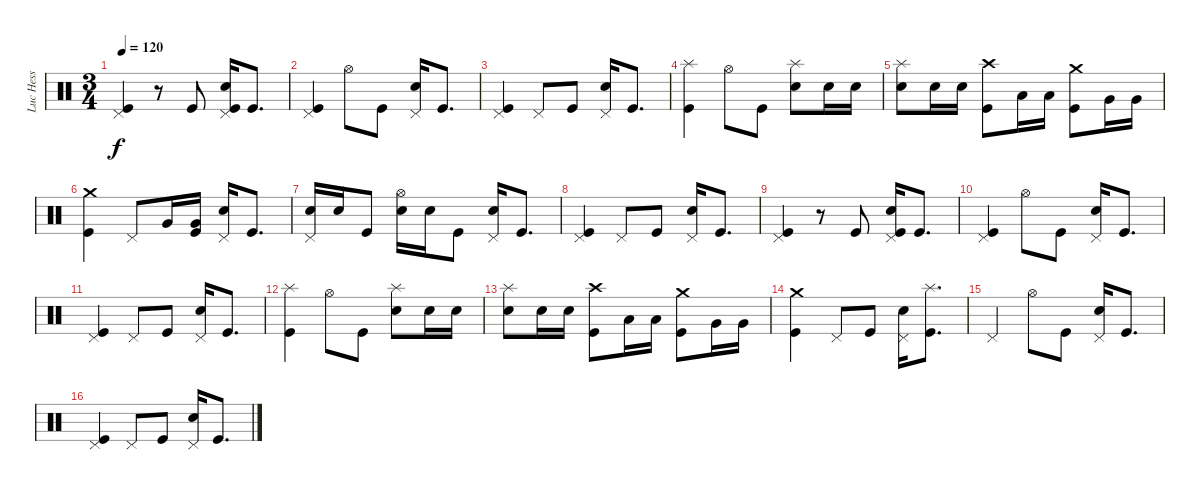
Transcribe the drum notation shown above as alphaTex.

\track ("Luc Hess" "Luc Hess") {instrument percussion}
\staff {score}
\articulation defaults
\ts (3 4)
\tempo 120
\clef neutral
\ks c
("Pedal Hi-Hat (hit)" "Kick (hit)").4{dy f} r.8 "Kick (hit)".8 ("Snare (hit) 2" "Pedal Hi-Hat (hit)" "Kick (hit)").16 "Kick (hit)".8{d} |
("Pedal Hi-Hat (hit)" "Kick (hit)").4 "Hi-Hat (open)".8 "Kick (hit)".8 ("Snare (hit) 2" "Pedal Hi-Hat (hit)").16 "Kick (hit)".8{d} |
("Pedal Hi-Hat (hit)" "Kick (hit)").4 "Pedal Hi-Hat (hit)".8 "Kick (hit)".8 ("Snare (hit) 2" "Pedal Hi-Hat (hit)").16 "Kick (hit)".8{d} |
("Splash (hit)" "Kick (hit)").4 "Hi-Hat (open)".8 "Kick (hit)".8 ("Snare (hit) 2" "Splash (hit)").8 "Snare (hit) 2".16 "Snare (hit) 2".16 |
("Snare (hit) 2" "Splash (hit)").8 "Snare (hit) 2".16 "Snare (hit) 2".16 ("Crash high (hit)" "Kick (hit)").8 "Low Tom (hit)".16 "Low Tom (hit)".16 ("Crash medium (hit)" "Kick (hit)").8 "Very Low Tom (hit)".16 "Very Low Tom (hit)".16 |
("Crash medium (hit)" "Kick (hit)").4 "Pedal Hi-Hat (hit)".8 "Very Low Tom (hit)".16 ("Very Low Tom (hit)" "Kick (hit)").16 ("Snare (hit) 2" "Pedal Hi-Hat (hit)").16 "Kick (hit)".8{d} |
("Snare (hit) 2" "Pedal Hi-Hat (hit)").16 "Snare (hit) 2".16 "Kick (hit)".8 ("Snare (hit) 2" "Hi-Hat (open)").16 "Snare (hit) 2".16 "Kick (hit)".8 ("Snare (hit) 2" "Pedal Hi-Hat (hit)").16 "Kick (hit)".8{d} |
("Pedal Hi-Hat (hit)" "Kick (hit)").4 "Pedal Hi-Hat (hit)".8 "Kick (hit)".8 ("Snare (hit) 2" "Pedal Hi-Hat (hit)").16 "Kick (hit)".8{d} |
("Pedal Hi-Hat (hit)" "Kick (hit)").4 r.8 "Kick (hit)".8 ("Snare (hit) 2" "Pedal Hi-Hat (hit)" "Kick (hit)").16 "Kick (hit)".8{d} |
("Pedal Hi-Hat (hit)" "Kick (hit)").4 "Hi-Hat (open)".8 "Kick (hit)".8 ("Snare (hit) 2" "Pedal Hi-Hat (hit)").16 "Kick (hit)".8{d} |
("Pedal Hi-Hat (hit)" "Kick (hit)").4 "Pedal Hi-Hat (hit)".8 "Kick (hit)".8 ("Snare (hit) 2" "Pedal Hi-Hat (hit)").16 "Kick (hit)".8{d} |
("Splash (hit)" "Kick (hit)").4 "Hi-Hat (open)".8 "Kick (hit)".8 ("Snare (hit) 2" "Splash (hit)").8 "Snare (hit) 2".16 "Snare (hit) 2".16 |
("Snare (hit) 2" "Splash (hit)").8 "Snare (hit) 2".16 "Snare (hit) 2".16 ("Crash high (hit)" "Kick (hit)").8 "Low Tom (hit)".16 "Low Tom (hit)".16 ("Crash medium (hit)" "Kick (hit)").8 "Very Low Tom (hit)".16 "Very Low Tom (hit)".16 |
("Crash medium (hit)" "Kick (hit)").4 "Pedal Hi-Hat (hit)".8 "Kick (hit)".8 ("Snare (hit) 2" "Pedal Hi-Hat (hit)").16 ("Splash (hit)" "Kick (hit)").8{d} |
"Pedal Hi-Hat (hit)".4 "Hi-Hat (open)".8 "Kick (hit)".8 ("Snare (hit) 2" "Pedal Hi-Hat (hit)").16 "Kick (hit)".8{d} |
("Pedal Hi-Hat (hit)" "Kick (hit)").4 "Pedal Hi-Hat (hit)".8 "Kick (hit)".8 ("Snare (hit) 2" "Pedal Hi-Hat (hit)").16 "Kick (hit)".8{d}
